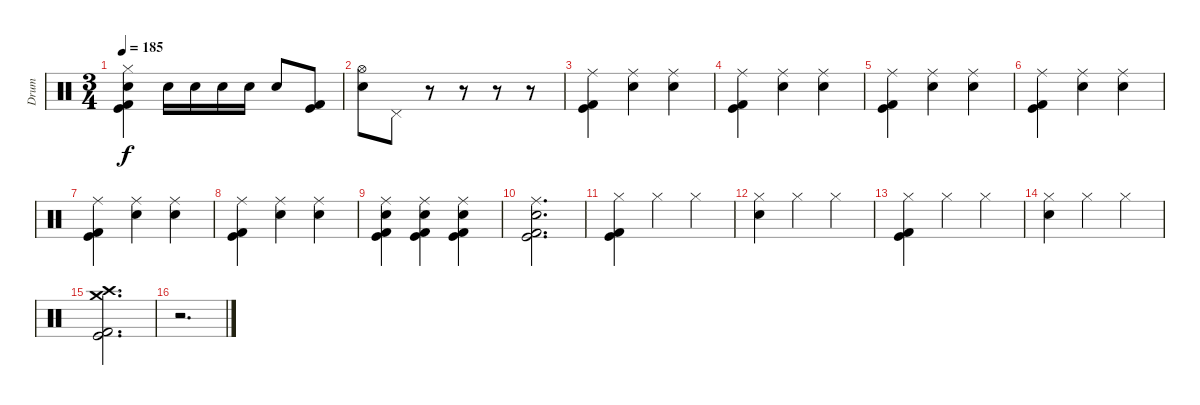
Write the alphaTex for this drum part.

\track ("Drum" "Drum") {instrument percussion}
\staff {score}
\articulation defaults
\ts (3 4)
\tempo 185
\clef neutral
\ks c
("Hi-Hat (closed)" "Electric Snare (hit)" "Kick (hit)" "Kick (hit) 2").4{dy f} "Electric Snare (hit)".16 "Electric Snare (hit)".16 "Electric Snare (hit)".16 "Electric Snare (hit)".16 "Electric Snare (hit)".8 ("Kick (hit)" "Kick (hit) 2").8 |
("Hi-Hat (open)" "Electric Snare (hit)").8 "Pedal Hi-Hat (hit)".8 r.8 r.8 r.8 r.8 |
("Ride (middle)" "Kick (hit)" "Kick (hit) 2").4 ("Ride (middle)" "Electric Snare (hit)").4 ("Ride (middle)" "Electric Snare (hit)").4 |
("Ride (middle)" "Kick (hit)" "Kick (hit) 2").4 ("Ride (middle)" "Electric Snare (hit)").4 ("Ride (middle)" "Electric Snare (hit)").4 |
("Ride (middle)" "Kick (hit)" "Kick (hit) 2").4 ("Ride (middle)" "Electric Snare (hit)").4 ("Ride (middle)" "Electric Snare (hit)").4 |
("Ride (middle)" "Kick (hit)" "Kick (hit) 2").4 ("Ride (middle)" "Electric Snare (hit)").4 ("Ride (middle)" "Electric Snare (hit)").4 |
("Ride (middle)" "Kick (hit)" "Kick (hit) 2").4 ("Ride (middle)" "Electric Snare (hit)").4 ("Ride (middle)" "Electric Snare (hit)").4 |
("Ride (middle)" "Kick (hit)" "Kick (hit) 2").4 ("Ride (middle)" "Electric Snare (hit)").4 ("Ride (middle)" "Electric Snare (hit)").4 |
("Ride (middle)" "Electric Snare (hit)" "Kick (hit)" "Kick (hit) 2").4 ("Ride (middle)" "Electric Snare (hit)" "Kick (hit)" "Kick (hit) 2").4 ("Ride (middle)" "Electric Snare (hit)" "Kick (hit)" "Kick (hit) 2").4 |
("Ride (middle)" "Electric Snare (hit)" "Kick (hit)" "Kick (hit) 2").2{d} |
("Hi-Hat (closed)" "Kick (hit)" "Kick (hit) 2").4 "Hi-Hat (closed)".4 "Hi-Hat (closed)".4 |
("Hi-Hat (closed)" "Electric Snare (hit)").4 "Hi-Hat (closed)".4 "Hi-Hat (closed)".4 |
("Hi-Hat (closed)" "Kick (hit)" "Kick (hit) 2").4 "Hi-Hat (closed)".4 "Hi-Hat (closed)".4 |
("Hi-Hat (closed)" "Electric Snare (hit)").4 "Hi-Hat (closed)".4 "Hi-Hat (closed)".4 |
("Crash medium (hit)" "Crash high (hit)" "Kick (hit)" "Kick (hit) 2").2{d} |
r.2{d}
